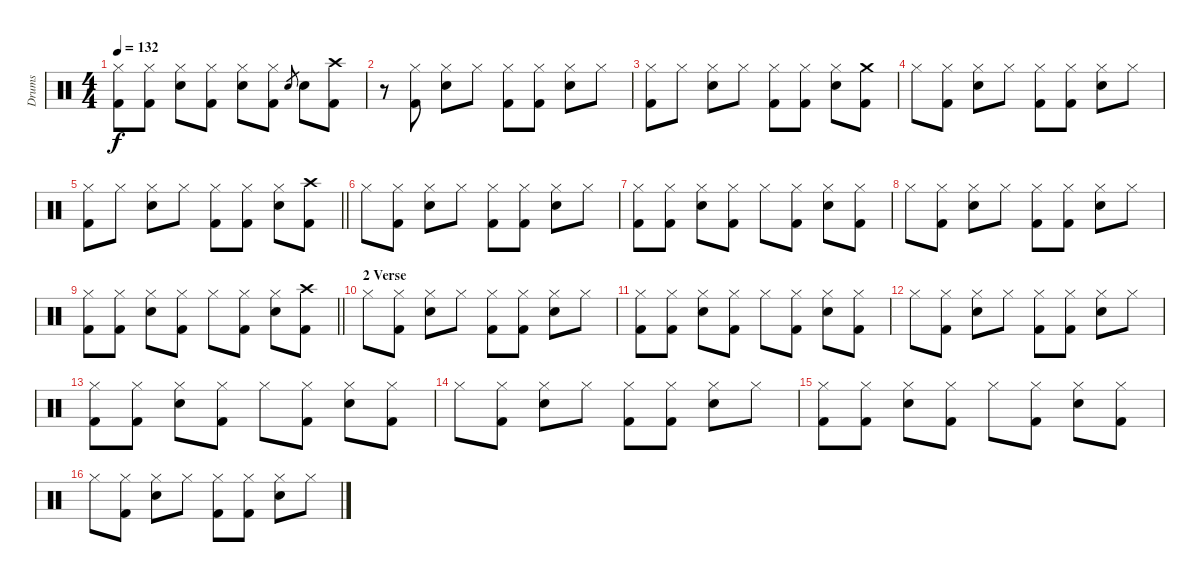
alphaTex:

\track ("Drums" "Drums") {instrument percussion}
\staff {score}
\articulation defaults
\ts (4 4)
\tempo 132
\clef neutral
\ks c
("Hi-Hat (closed)" "Kick (hit) 2").8{dy f} ("Hi-Hat (closed)" "Kick (hit) 2").8 ("Hi-Hat (closed)" "Electric Snare (hit)").8 ("Hi-Hat (closed)" "Kick (hit) 2").8 ("Hi-Hat (closed)" "Electric Snare (hit)").8 ("Hi-Hat (closed)" "Kick (hit) 2").8 "Electric Snare (hit)".8{gr} "Electric Snare (hit)".8 ("Crash high (hit)" "Kick (hit) 2").8 |
r.8 ("Hi-Hat (closed)" "Kick (hit) 2").8 ("Hi-Hat (closed)" "Electric Snare (hit)").8 "Hi-Hat (closed)".8 ("Hi-Hat (closed)" "Kick (hit) 2").8 ("Hi-Hat (closed)" "Kick (hit) 2").8 ("Hi-Hat (closed)" "Electric Snare (hit)").8 "Hi-Hat (closed)".8 |
("Hi-Hat (closed)" "Kick (hit) 2").8 "Hi-Hat (closed)".8 ("Hi-Hat (closed)" "Electric Snare (hit)").8 "Hi-Hat (closed)".8 ("Hi-Hat (closed)" "Kick (hit) 2").8 ("Hi-Hat (closed)" "Kick (hit) 2").8 ("Hi-Hat (closed)" "Electric Snare (hit)").8 ("Crash medium (hit)" "Kick (hit) 2").8 |
"Hi-Hat (closed)".8 ("Hi-Hat (closed)" "Kick (hit) 2").8 ("Hi-Hat (closed)" "Electric Snare (hit)").8 "Hi-Hat (closed)".8 ("Hi-Hat (closed)" "Kick (hit) 2").8 ("Hi-Hat (closed)" "Kick (hit) 2").8 ("Hi-Hat (closed)" "Electric Snare (hit)").8 "Hi-Hat (closed)".8 |
\barLineRight lightlight
("Hi-Hat (closed)" "Kick (hit) 2").8 "Hi-Hat (closed)".8 ("Hi-Hat (closed)" "Electric Snare (hit)").8 "Hi-Hat (closed)".8 ("Hi-Hat (closed)" "Kick (hit) 2").8 ("Hi-Hat (closed)" "Kick (hit) 2").8 ("Hi-Hat (closed)" "Electric Snare (hit)").8 ("Crash high (hit)" "Kick (hit) 2").8 |
\section ("" "")
"Hi-Hat (closed)".8 ("Hi-Hat (closed)" "Kick (hit) 2").8 ("Hi-Hat (closed)" "Electric Snare (hit)").8 "Hi-Hat (closed)".8 ("Hi-Hat (closed)" "Kick (hit) 2").8 ("Hi-Hat (closed)" "Kick (hit) 2").8 ("Hi-Hat (closed)" "Electric Snare (hit)").8 "Hi-Hat (closed)".8 |
("Hi-Hat (closed)" "Kick (hit) 2").8 ("Hi-Hat (closed)" "Kick (hit) 2").8 ("Hi-Hat (closed)" "Electric Snare (hit)").8 ("Hi-Hat (closed)" "Kick (hit) 2").8 "Hi-Hat (closed)".8 ("Hi-Hat (closed)" "Kick (hit) 2").8 ("Hi-Hat (closed)" "Electric Snare (hit)").8 ("Hi-Hat (closed)" "Kick (hit) 2").8 |
"Hi-Hat (closed)".8 ("Hi-Hat (closed)" "Kick (hit) 2").8 ("Hi-Hat (closed)" "Electric Snare (hit)").8 "Hi-Hat (closed)".8 ("Hi-Hat (closed)" "Kick (hit) 2").8 ("Hi-Hat (closed)" "Kick (hit) 2").8 ("Hi-Hat (closed)" "Electric Snare (hit)").8 "Hi-Hat (closed)".8 |
\barLineRight lightlight
("Hi-Hat (closed)" "Kick (hit) 2").8 ("Hi-Hat (closed)" "Kick (hit) 2").8 ("Hi-Hat (closed)" "Electric Snare (hit)").8 ("Hi-Hat (closed)" "Kick (hit) 2").8 "Hi-Hat (closed)".8 ("Hi-Hat (closed)" "Kick (hit) 2").8 ("Hi-Hat (closed)" "Electric Snare (hit)").8 ("Crash high (hit)" "Kick (hit) 2").8 |
\section ("" "2 Verse")
"Hi-Hat (closed)".8 ("Hi-Hat (closed)" "Kick (hit) 2").8 ("Hi-Hat (closed)" "Electric Snare (hit)").8 "Hi-Hat (closed)".8 ("Hi-Hat (closed)" "Kick (hit) 2").8 ("Hi-Hat (closed)" "Kick (hit) 2").8 ("Hi-Hat (closed)" "Electric Snare (hit)").8 "Hi-Hat (closed)".8 |
("Hi-Hat (closed)" "Kick (hit) 2").8 ("Hi-Hat (closed)" "Kick (hit) 2").8 ("Hi-Hat (closed)" "Electric Snare (hit)").8 ("Hi-Hat (closed)" "Kick (hit) 2").8 "Hi-Hat (closed)".8 ("Hi-Hat (closed)" "Kick (hit) 2").8 ("Hi-Hat (closed)" "Electric Snare (hit)").8 ("Hi-Hat (closed)" "Kick (hit) 2").8 |
"Hi-Hat (closed)".8 ("Hi-Hat (closed)" "Kick (hit) 2").8 ("Hi-Hat (closed)" "Electric Snare (hit)").8 "Hi-Hat (closed)".8 ("Hi-Hat (closed)" "Kick (hit) 2").8 ("Hi-Hat (closed)" "Kick (hit) 2").8 ("Hi-Hat (closed)" "Electric Snare (hit)").8 "Hi-Hat (closed)".8 |
("Hi-Hat (closed)" "Kick (hit) 2").8 ("Hi-Hat (closed)" "Kick (hit) 2").8 ("Hi-Hat (closed)" "Electric Snare (hit)").8 ("Hi-Hat (closed)" "Kick (hit) 2").8 "Hi-Hat (closed)".8 ("Hi-Hat (closed)" "Kick (hit) 2").8 ("Hi-Hat (closed)" "Electric Snare (hit)").8 ("Hi-Hat (closed)" "Kick (hit) 2").8 |
"Hi-Hat (closed)".8 ("Hi-Hat (closed)" "Kick (hit) 2").8 ("Hi-Hat (closed)" "Electric Snare (hit)").8 "Hi-Hat (closed)".8 ("Hi-Hat (closed)" "Kick (hit) 2").8 ("Hi-Hat (closed)" "Kick (hit) 2").8 ("Hi-Hat (closed)" "Electric Snare (hit)").8 "Hi-Hat (closed)".8 |
("Hi-Hat (closed)" "Kick (hit) 2").8 ("Hi-Hat (closed)" "Kick (hit) 2").8 ("Hi-Hat (closed)" "Electric Snare (hit)").8 ("Hi-Hat (closed)" "Kick (hit) 2").8 "Hi-Hat (closed)".8 ("Hi-Hat (closed)" "Kick (hit) 2").8 ("Hi-Hat (closed)" "Electric Snare (hit)").8 ("Hi-Hat (closed)" "Kick (hit) 2").8 |
"Hi-Hat (closed)".8 ("Hi-Hat (closed)" "Kick (hit) 2").8 ("Hi-Hat (closed)" "Electric Snare (hit)").8 "Hi-Hat (closed)".8 ("Hi-Hat (closed)" "Kick (hit) 2").8 ("Hi-Hat (closed)" "Kick (hit) 2").8 ("Hi-Hat (closed)" "Electric Snare (hit)").8 "Hi-Hat (closed)".8
